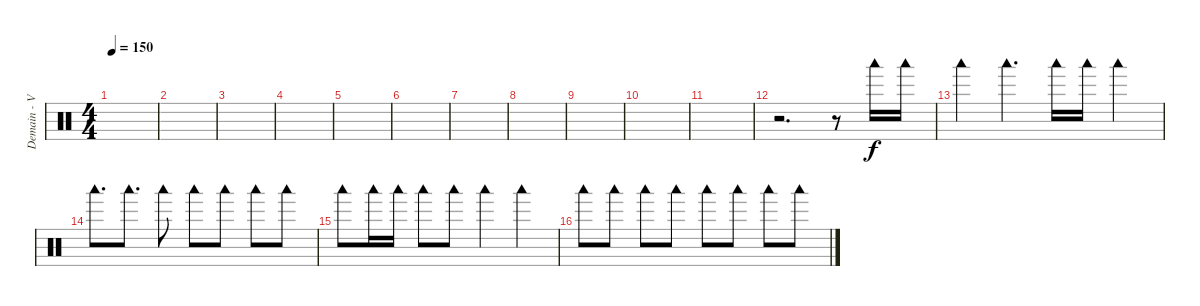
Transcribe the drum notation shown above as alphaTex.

\track ("Demain - Various Perc." "Demain - V") {instrument percussion}
\staff {score}
\articulation defaults
\ts (4 4)
\tempo 150
\clef neutral
\ks c
|
|
|
|
|
|
|
|
|
|
|
r.2{d} r.8 "Woodblock low (hit)".16{dy f} "Woodblock low (hit)".16 |
"Woodblock low (hit)".4 "Woodblock low (hit)".4{d} "Woodblock low (hit)".16 "Woodblock low (hit)".16 "Woodblock low (hit)".4 |
"Woodblock low (hit)".8{d} "Woodblock low (hit)".8{d} "Woodblock low (hit)".8 "Woodblock low (hit)".8 "Woodblock low (hit)".8 "Woodblock low (hit)".8 "Woodblock low (hit)".8 |
"Woodblock low (hit)".8 "Woodblock low (hit)".16 "Woodblock low (hit)".16 "Woodblock low (hit)".8 "Woodblock low (hit)".8 "Woodblock low (hit)".4 "Woodblock low (hit)".4 |
"Woodblock low (hit)".8 "Woodblock low (hit)".8 "Woodblock low (hit)".8 "Woodblock low (hit)".8 "Woodblock low (hit)".8 "Woodblock low (hit)".8 "Woodblock low (hit)".8 "Woodblock low (hit)".8
